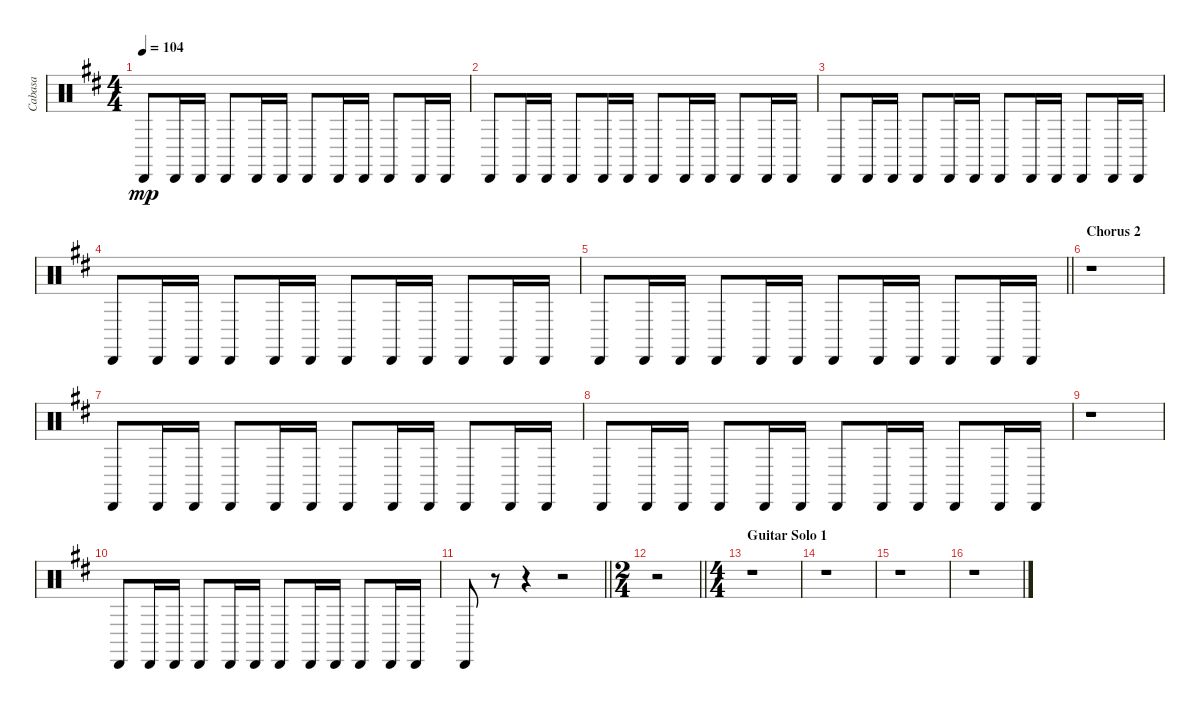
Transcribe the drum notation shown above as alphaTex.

\track ("Cabasa" "Cabasa") {instrument percussion}
\staff {score}
\articulation defaults
\ts (4 4)
\tempo 104
\clef neutral
\ks bminor "Cabasa (hit)".8{dy mp} "Cabasa (hit)".16 "Cabasa (hit)".16 "Cabasa (hit)".8 "Cabasa (hit)".16 "Cabasa (hit)".16 "Cabasa (hit)".8 "Cabasa (hit)".16 "Cabasa (hit)".16 "Cabasa (hit)".8 "Cabasa (hit)".16 "Cabasa (hit)".16
|
"Cabasa (hit)".8 "Cabasa (hit)".16 "Cabasa (hit)".16 "Cabasa (hit)".8 "Cabasa (hit)".16 "Cabasa (hit)".16 "Cabasa (hit)".8 "Cabasa (hit)".16 "Cabasa (hit)".16 "Cabasa (hit)".8 "Cabasa (hit)".16 "Cabasa (hit)".16 |
"Cabasa (hit)".8 "Cabasa (hit)".16 "Cabasa (hit)".16 "Cabasa (hit)".8 "Cabasa (hit)".16 "Cabasa (hit)".16 "Cabasa (hit)".8 "Cabasa (hit)".16 "Cabasa (hit)".16 "Cabasa (hit)".8 "Cabasa (hit)".16 "Cabasa (hit)".16 |
"Cabasa (hit)".8 "Cabasa (hit)".16 "Cabasa (hit)".16 "Cabasa (hit)".8 "Cabasa (hit)".16 "Cabasa (hit)".16 "Cabasa (hit)".8 "Cabasa (hit)".16 "Cabasa (hit)".16 "Cabasa (hit)".8 "Cabasa (hit)".16 "Cabasa (hit)".16 |
\barLineRight lightlight "Cabasa (hit)".8 "Cabasa (hit)".16 "Cabasa (hit)".16 "Cabasa (hit)".8 "Cabasa (hit)".16 "Cabasa (hit)".16 "Cabasa (hit)".8 "Cabasa (hit)".16 "Cabasa (hit)".16 "Cabasa (hit)".8 "Cabasa (hit)".16 "Cabasa (hit)".16
|
\section ("" "Chorus 2")
r.1 |
"Cabasa (hit)".8 "Cabasa (hit)".16 "Cabasa (hit)".16 "Cabasa (hit)".8 "Cabasa (hit)".16 "Cabasa (hit)".16 "Cabasa (hit)".8 "Cabasa (hit)".16 "Cabasa (hit)".16 "Cabasa (hit)".8 "Cabasa (hit)".16 "Cabasa (hit)".16 |
"Cabasa (hit)".8 "Cabasa (hit)".16 "Cabasa (hit)".16 "Cabasa (hit)".8 "Cabasa (hit)".16 "Cabasa (hit)".16 "Cabasa (hit)".8 "Cabasa (hit)".16 "Cabasa (hit)".16 "Cabasa (hit)".8 "Cabasa (hit)".16 "Cabasa (hit)".16 |
r.1 |
"Cabasa (hit)".8 "Cabasa (hit)".16 "Cabasa (hit)".16 "Cabasa (hit)".8 "Cabasa (hit)".16 "Cabasa (hit)".16 "Cabasa (hit)".8 "Cabasa (hit)".16 "Cabasa (hit)".16 "Cabasa (hit)".8 "Cabasa (hit)".16 "Cabasa (hit)".16 |
\barLineRight lightlight "Cabasa (hit)".8
r.8 r.4 r.2 |
\ts (2 4)
\barLineRight lightlight
r.2 |
\ts (4 4)
\section ("" "Guitar Solo 1")
r.1 |
r.1 |
r.1 |
r.1
